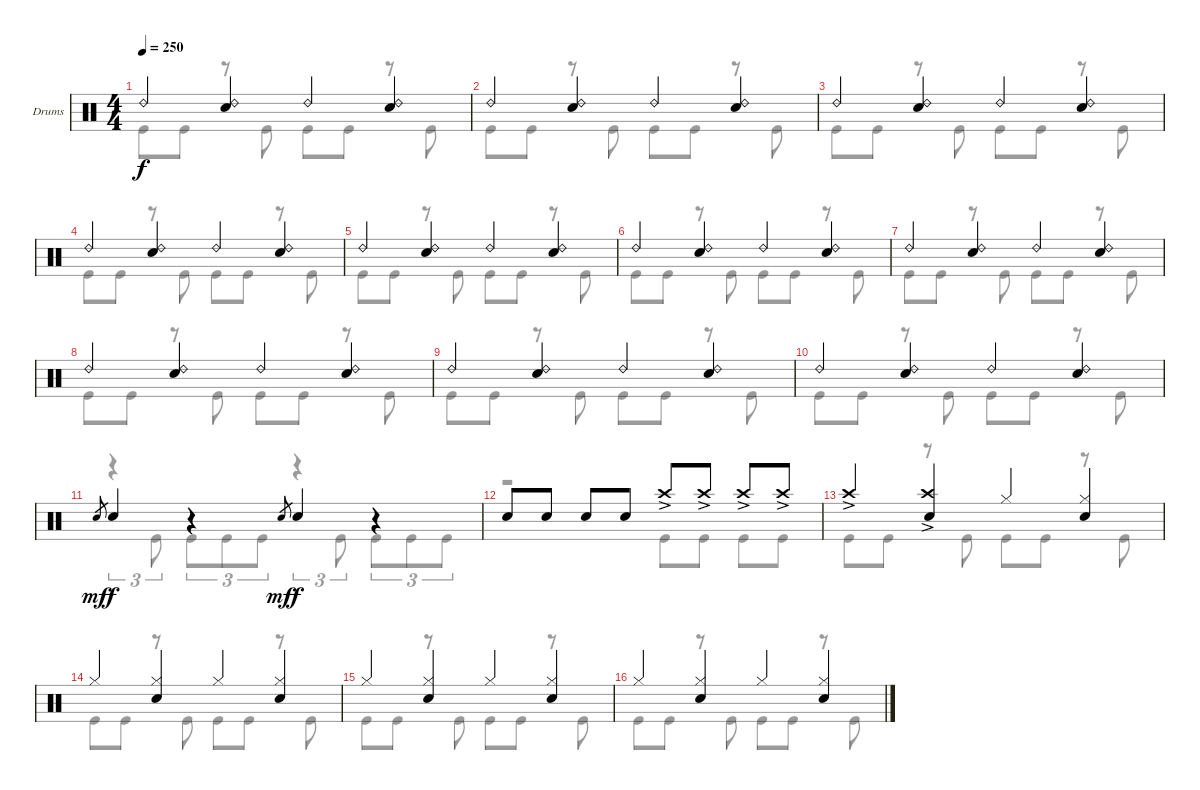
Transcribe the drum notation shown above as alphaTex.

\bracketExtendMode groupsimilarinstruments
\firstSystemTrackNameOrientation horizontal
\otherSystemsTrackNameOrientation horizontal
\track ("Drumkit" "Drums") {instrument percussion}
\staff {score}
\articulation defaults
\voice
\ts (4 4)
\tempo 250
\clef neutral
\ks c "Ride (bell) 2".4{dy f}
("Ride (bell) 2" "Snare (hit) 2").4 "Ride (bell) 2".4 ("Ride (bell) 2" "Snare (hit) 2").4 |
"Ride (bell) 2".4 ("Ride (bell) 2" "Snare (hit) 2").4 "Ride (bell) 2".4 ("Ride (bell) 2" "Snare (hit) 2").4 |
"Ride (bell) 2".4 ("Ride (bell) 2" "Snare (hit) 2").4 "Ride (bell) 2".4 ("Ride (bell) 2" "Snare (hit) 2").4 |
"Ride (bell) 2".4 ("Ride (bell) 2" "Snare (hit) 2").4 "Ride (bell) 2".4 ("Ride (bell) 2" "Snare (hit) 2").4 |
"Ride (bell) 2".4 ("Ride (bell) 2" "Snare (hit) 2").4 "Ride (bell) 2".4 ("Ride (bell) 2" "Snare (hit) 2").4 |
"Ride (bell) 2".4 ("Ride (bell) 2" "Snare (hit) 2").4 "Ride (bell) 2".4 ("Ride (bell) 2" "Snare (hit) 2").4 |
"Ride (bell) 2".4 ("Ride (bell) 2" "Snare (hit) 2").4 "Ride (bell) 2".4 ("Ride (bell) 2" "Snare (hit) 2").4 |
"Ride (bell) 2".4 ("Ride (bell) 2" "Snare (hit) 2").4 "Ride (bell) 2".4 ("Ride (bell) 2" "Snare (hit) 2").4 |
"Ride (bell) 2".4 ("Ride (bell) 2" "Snare (hit) 2").4 "Ride (bell) 2".4 ("Ride (bell) 2" "Snare (hit) 2").4 |
"Ride (bell) 2".4 ("Ride (bell) 2" "Snare (hit) 2").4 "Ride (bell) 2".4 ("Ride (bell) 2" "Snare (hit) 2").4 |
"Snare (hit) 2".8{gr dy mf} "Snare (hit) 2".4{dy f} r.4 "Snare (hit) 2".8{gr dy mf} "Snare (hit) 2".4{dy f} r.4 |
"Snare (hit) 2".8 "Snare (hit) 2".8 "Snare (hit) 2".8 "Snare (hit) 2".8 "Crash high (hit)"{ac}.8 "Crash high (hit)"{ac}.8 "Crash high (hit)"{ac}.8 "Crash high (hit)"{ac}.8 |
"Crash high (hit)"{ac}.4 ("Crash high (hit)"{ac} "Snare (hit) 2").4 "Hi-Hat (closed)".4 ("Hi-Hat (closed)" "Snare (hit) 2").4 |
"Hi-Hat (closed)".4 ("Hi-Hat (closed)" "Snare (hit) 2").4 "Hi-Hat (closed)".4 ("Hi-Hat (closed)" "Snare (hit) 2").4 |
"Hi-Hat (closed)".4 ("Hi-Hat (closed)" "Snare (hit) 2").4 "Hi-Hat (closed)".4 ("Hi-Hat (closed)" "Snare (hit) 2").4 |
"Hi-Hat (closed)".4 ("Hi-Hat (closed)" "Snare (hit) 2").4 "Hi-Hat (closed)".4 ("Hi-Hat (closed)" "Snare (hit) 2").4
\voice
\clef neutral
\ottava regular
\simile none
\ks c "Kick (hit)".8{dy f} "Kick (hit)".8
r.8 "Kick (hit)".8 "Kick (hit)".8 "Kick (hit)".8 r.8 "Kick (hit)".8 |
"Kick (hit)".8 "Kick (hit)".8 r.8 "Kick (hit)".8 "Kick (hit)".8 "Kick (hit)".8 r.8 "Kick (hit)".8 |
"Kick (hit)".8 "Kick (hit)".8 r.8 "Kick (hit)".8 "Kick (hit)".8 "Kick (hit)".8 r.8 "Kick (hit)".8 |
"Kick (hit)".8 "Kick (hit)".8 r.8 "Kick (hit)".8 "Kick (hit)".8 "Kick (hit)".8 r.8 "Kick (hit)".8 |
"Kick (hit)".8 "Kick (hit)".8 r.8 "Kick (hit)".8 "Kick (hit)".8 "Kick (hit)".8 r.8 "Kick (hit)".8 |
"Kick (hit)".8 "Kick (hit)".8 r.8 "Kick (hit)".8 "Kick (hit)".8 "Kick (hit)".8 r.8 "Kick (hit)".8 |
"Kick (hit)".8 "Kick (hit)".8 r.8 "Kick (hit)".8 "Kick (hit)".8 "Kick (hit)".8 r.8 "Kick (hit)".8 |
"Kick (hit)".8 "Kick (hit)".8 r.8 "Kick (hit)".8 "Kick (hit)".8 "Kick (hit)".8 r.8 "Kick (hit)".8 |
"Kick (hit)".8 "Kick (hit)".8 r.8 "Kick (hit)".8 "Kick (hit)".8 "Kick (hit)".8 r.8 "Kick (hit)".8 |
"Kick (hit)".8 "Kick (hit)".8 r.8 "Kick (hit)".8 "Kick (hit)".8 "Kick (hit)".8 r.8 "Kick (hit)".8 |
r.4{tu (3 2)} "Kick (hit)".8{tu (3 2)} "Kick (hit)".8{tu (3 2)} "Kick (hit)".8{tu (3 2)} "Kick (hit)".8{tu (3 2)} r.4{tu (3 2)} "Kick (hit)".8{tu (3 2)} "Kick (hit)".8{tu (3 2)} "Kick (hit)".8{tu (3 2)} "Kick (hit)".8{tu (3 2)} |
r.2 "Kick (hit)".8 "Kick (hit)".8 "Kick (hit)".8 "Kick (hit)".8 |
"Kick (hit)".8 "Kick (hit)".8 r.8 "Kick (hit)".8 "Kick (hit)".8 "Kick (hit)".8 r.8 "Kick (hit)".8 |
"Kick (hit)".8 "Kick (hit)".8 r.8 "Kick (hit)".8 "Kick (hit)".8 "Kick (hit)".8 r.8 "Kick (hit)".8 |
"Kick (hit)".8 "Kick (hit)".8 r.8 "Kick (hit)".8 "Kick (hit)".8 "Kick (hit)".8 r.8 "Kick (hit)".8 |
"Kick (hit)".8 "Kick (hit)".8 r.8 "Kick (hit)".8 "Kick (hit)".8 "Kick (hit)".8 r.8 "Kick (hit)".8
